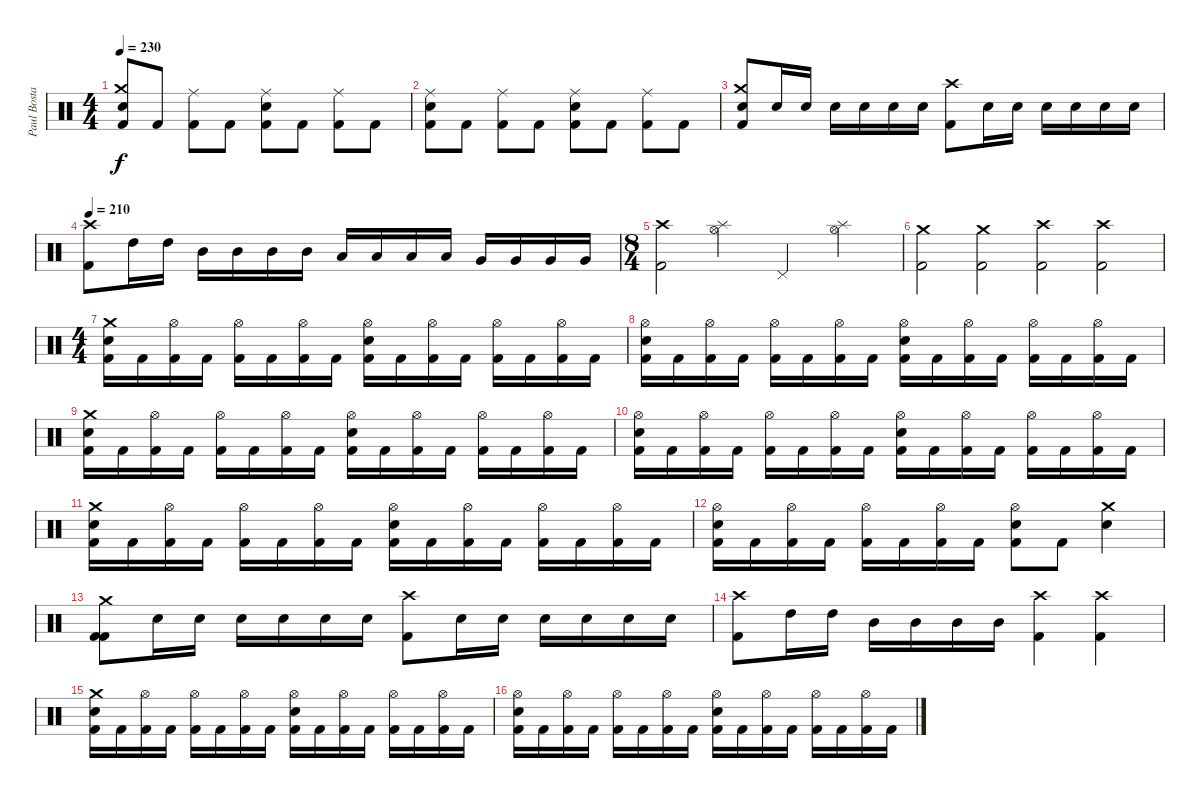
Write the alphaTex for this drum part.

\track ("Paul Bostaph" "Paul Bosta") {instrument percussion}
\staff {score}
\articulation defaults
\ts (4 4)
\tempo 230
\clef neutral
\ks c
("Electric Snare (hit)" "Crash medium (hit)" "Kick (hit) 2").8{dy f} "Kick (hit) 2".8 ("Ride (middle)" "Kick (hit) 2").8 "Kick (hit) 2".8 ("Ride (middle)" "Electric Snare (hit)" "Kick (hit) 2").8 "Kick (hit) 2".8 ("Ride (middle)" "Kick (hit) 2").8 "Kick (hit) 2".8 |
("Electric Snare (hit)" "Ride (middle)" "Kick (hit) 2").8 "Kick (hit) 2".8 ("Ride (middle)" "Kick (hit) 2").8 "Kick (hit) 2".8 ("Ride (middle)" "Electric Snare (hit)" "Kick (hit) 2").8 "Kick (hit) 2".8 ("Ride (middle)" "Kick (hit) 2").8 "Kick (hit) 2".8 |
("Electric Snare (hit)" "Crash medium (hit)" "Kick (hit) 2").8 "Electric Snare (hit)".16 "Electric Snare (hit)".16 "Electric Snare (hit)".16 "Electric Snare (hit)".16 "Electric Snare (hit)".16 "Electric Snare (hit)".16 ("Crash high (hit)" "Kick (hit) 2").8 "Electric Snare (hit)".16 "Electric Snare (hit)".16 "Electric Snare (hit)".16 "Electric Snare (hit)".16 "Electric Snare (hit)".16 "Electric Snare (hit)".16 |
\tempo 210
("Crash high (hit)" "Kick (hit) 2").8 "High Tom (hit)".16 "High Tom (hit)".16 "Mid Tom (hit)".16 "Mid Tom (hit)".16 "Mid Tom (hit)".16 "Mid Tom (hit)".16 "Low Tom (hit)".16 "Low Tom (hit)".16 "Low Tom (hit)".16 "Low Tom (hit)".16 "Very Low Tom (hit)".16 "Very Low Tom (hit)".16 "Very Low Tom (hit)".16 "Very Low Tom (hit)".16 |
\ts (8 4)
("Crash high (hit)" "Kick (hit) 2").2 ("Splash (hit)" "Hi-Hat (open)").2 "Pedal Hi-Hat (hit)".2 ("Splash (hit)" "Hi-Hat (open)").2 |
("Crash medium (hit)" "Kick (hit) 2").2 ("Crash medium (hit)" "Kick (hit) 2").2 ("Crash high (hit)" "Kick (hit) 2").2 ("Crash high (hit)" "Kick (hit) 2").2 |
\ts (4 4)
("Electric Snare (hit)" "Crash medium (hit)" "Kick (hit) 2").16 "Kick (hit) 2".16 ("Hi-Hat (open)" "Kick (hit) 2").16 "Kick (hit) 2".16 ("Hi-Hat (open)" "Kick (hit) 2").16 "Kick (hit) 2".16 ("Hi-Hat (open)" "Kick (hit) 2").16 "Kick (hit) 2".16 ("Electric Snare (hit)" "Hi-Hat (open)" "Kick (hit) 2").16 "Kick (hit) 2".16 ("Hi-Hat (open)" "Kick (hit) 2").16 "Kick (hit) 2".16 ("Hi-Hat (open)" "Kick (hit) 2").16 "Kick (hit) 2".16 ("Hi-Hat (open)" "Kick (hit) 2").16 "Kick (hit) 2".16 |
("Electric Snare (hit)" "Hi-Hat (open)" "Kick (hit) 2").16 "Kick (hit) 2".16 ("Hi-Hat (open)" "Kick (hit) 2").16 "Kick (hit) 2".16 ("Hi-Hat (open)" "Kick (hit) 2").16 "Kick (hit) 2".16 ("Hi-Hat (open)" "Kick (hit) 2").16 "Kick (hit) 2".16 ("Electric Snare (hit)" "Hi-Hat (open)" "Kick (hit) 2").16 "Kick (hit) 2".16 ("Hi-Hat (open)" "Kick (hit) 2").16 "Kick (hit) 2".16 ("Hi-Hat (open)" "Kick (hit) 2").16 "Kick (hit) 2".16 ("Hi-Hat (open)" "Kick (hit) 2").16 "Kick (hit) 2".16 |
("Electric Snare (hit)" "Crash medium (hit)" "Kick (hit) 2").16 "Kick (hit) 2".16 ("Hi-Hat (open)" "Kick (hit) 2").16 "Kick (hit) 2".16 ("Hi-Hat (open)" "Kick (hit) 2").16 "Kick (hit) 2".16 ("Hi-Hat (open)" "Kick (hit) 2").16 "Kick (hit) 2".16 ("Electric Snare (hit)" "Hi-Hat (open)" "Kick (hit) 2").16 "Kick (hit) 2".16 ("Hi-Hat (open)" "Kick (hit) 2").16 "Kick (hit) 2".16 ("Hi-Hat (open)" "Kick (hit) 2").16 "Kick (hit) 2".16 ("Hi-Hat (open)" "Kick (hit) 2").16 "Kick (hit) 2".16 |
("Electric Snare (hit)" "Hi-Hat (open)" "Kick (hit) 2").16 "Kick (hit) 2".16 ("Hi-Hat (open)" "Kick (hit) 2").16 "Kick (hit) 2".16 ("Hi-Hat (open)" "Kick (hit) 2").16 "Kick (hit) 2".16 ("Hi-Hat (open)" "Kick (hit) 2").16 "Kick (hit) 2".16 ("Electric Snare (hit)" "Hi-Hat (open)" "Kick (hit) 2").16 "Kick (hit) 2".16 ("Hi-Hat (open)" "Kick (hit) 2").16 "Kick (hit) 2".16 ("Hi-Hat (open)" "Kick (hit) 2").16 "Kick (hit) 2".16 ("Hi-Hat (open)" "Kick (hit) 2").16 "Kick (hit) 2".16 |
("Electric Snare (hit)" "Crash medium (hit)" "Kick (hit) 2").16 "Kick (hit) 2".16 ("Hi-Hat (open)" "Kick (hit) 2").16 "Kick (hit) 2".16 ("Hi-Hat (open)" "Kick (hit) 2").16 "Kick (hit) 2".16 ("Hi-Hat (open)" "Kick (hit) 2").16 "Kick (hit) 2".16 ("Electric Snare (hit)" "Hi-Hat (open)" "Kick (hit) 2").16 "Kick (hit) 2".16 ("Hi-Hat (open)" "Kick (hit) 2").16 "Kick (hit) 2".16 ("Hi-Hat (open)" "Kick (hit) 2").16 "Kick (hit) 2".16 ("Hi-Hat (open)" "Kick (hit) 2").16 "Kick (hit) 2".16 |
("Electric Snare (hit)" "Hi-Hat (open)" "Kick (hit) 2").16 "Kick (hit) 2".16 ("Hi-Hat (open)" "Kick (hit) 2").16 "Kick (hit) 2".16 ("Hi-Hat (open)" "Kick (hit) 2").16 "Kick (hit) 2".16 ("Hi-Hat (open)" "Kick (hit) 2").16 "Kick (hit) 2".16 ("Electric Snare (hit)" "Hi-Hat (open)" "Kick (hit) 2").8 "Kick (hit) 2".8 ("Electric Snare (hit)" "Crash medium (hit)").4 |
("Kick (hit) 2" "Crash medium (hit)" "Kick (hit) 2").8 "Electric Snare (hit)".16 "Electric Snare (hit)".16 "Electric Snare (hit)".16 "Electric Snare (hit)".16 "Electric Snare (hit)".16 "Electric Snare (hit)".16 ("Crash high (hit)" "Kick (hit) 2").8 "Electric Snare (hit)".16 "Electric Snare (hit)".16 "Electric Snare (hit)".16 "Electric Snare (hit)".16 "Electric Snare (hit)".16 "Electric Snare (hit)".16 |
("Crash high (hit)" "Kick (hit) 2").8 "High Tom (hit)".16 "High Tom (hit)".16 "Mid Tom (hit)".16 "Mid Tom (hit)".16 "Mid Tom (hit)".16 "Mid Tom (hit)".16 ("Crash high (hit)" "Kick (hit) 2").4 ("Crash high (hit)" "Kick (hit) 2").4 |
("Electric Snare (hit)" "Crash medium (hit)" "Kick (hit) 2").16 "Kick (hit) 2".16 ("Hi-Hat (open)" "Kick (hit) 2").16 "Kick (hit) 2".16 ("Hi-Hat (open)" "Kick (hit) 2").16 "Kick (hit) 2".16 ("Hi-Hat (open)" "Kick (hit) 2").16 "Kick (hit) 2".16 ("Electric Snare (hit)" "Hi-Hat (open)" "Kick (hit) 2").16 "Kick (hit) 2".16 ("Hi-Hat (open)" "Kick (hit) 2").16 "Kick (hit) 2".16 ("Hi-Hat (open)" "Kick (hit) 2").16 "Kick (hit) 2".16 ("Hi-Hat (open)" "Kick (hit) 2").16 "Kick (hit) 2".16 |
("Electric Snare (hit)" "Hi-Hat (open)" "Kick (hit) 2").16 "Kick (hit) 2".16 ("Hi-Hat (open)" "Kick (hit) 2").16 "Kick (hit) 2".16 ("Hi-Hat (open)" "Kick (hit) 2").16 "Kick (hit) 2".16 ("Hi-Hat (open)" "Kick (hit) 2").16 "Kick (hit) 2".16 ("Electric Snare (hit)" "Hi-Hat (open)" "Kick (hit) 2").16 "Kick (hit) 2".16 ("Hi-Hat (open)" "Kick (hit) 2").16 "Kick (hit) 2".16 ("Hi-Hat (open)" "Kick (hit) 2").16 "Kick (hit) 2".16 ("Hi-Hat (open)" "Kick (hit) 2").16 "Kick (hit) 2".16
